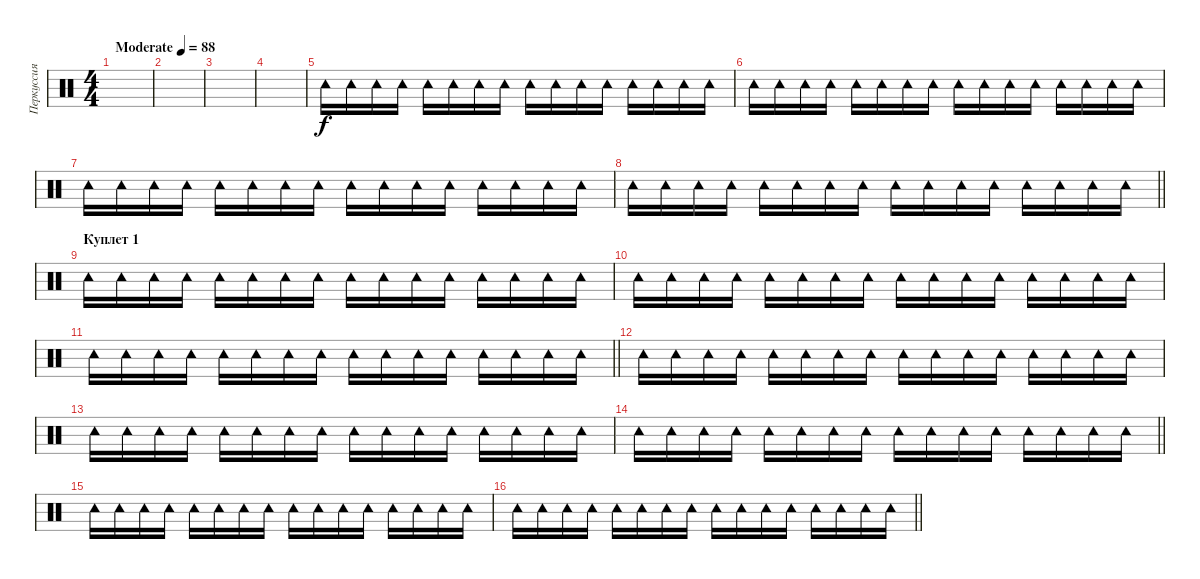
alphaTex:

\track ("Перкуссия 1" "Перкуссия ") {instrument percussion}
\staff {score}
\articulation defaults
\ts (4 4)
\tempo (88 "Moderate")
\clef neutral
\ks c
|
|
|
|
"Tambourine (hit)".16{volume 2} "Tambourine (hit)".16 "Tambourine (hit)".16 "Tambourine (hit)".16 "Tambourine (hit)".16 "Tambourine (hit)".16 "Tambourine (hit)".16 "Tambourine (hit)".16 "Tambourine (hit)".16 "Tambourine (hit)".16 "Tambourine (hit)".16 "Tambourine (hit)".16 "Tambourine (hit)".16 "Tambourine (hit)".16 "Tambourine (hit)".16 "Tambourine (hit)".16 |
"Tambourine (hit)".16 "Tambourine (hit)".16 "Tambourine (hit)".16 "Tambourine (hit)".16 "Tambourine (hit)".16 "Tambourine (hit)".16 "Tambourine (hit)".16 "Tambourine (hit)".16 "Tambourine (hit)".16 "Tambourine (hit)".16 "Tambourine (hit)".16 "Tambourine (hit)".16 "Tambourine (hit)".16 "Tambourine (hit)".16 "Tambourine (hit)".16 "Tambourine (hit)".16 |
"Tambourine (hit)".16 "Tambourine (hit)".16 "Tambourine (hit)".16 "Tambourine (hit)".16 "Tambourine (hit)".16 "Tambourine (hit)".16 "Tambourine (hit)".16 "Tambourine (hit)".16 "Tambourine (hit)".16 "Tambourine (hit)".16 "Tambourine (hit)".16 "Tambourine (hit)".16 "Tambourine (hit)".16 "Tambourine (hit)".16 "Tambourine (hit)".16 "Tambourine (hit)".16 |
\barLineRight lightlight "Tambourine (hit)".16 "Tambourine (hit)".16 "Tambourine (hit)".16 "Tambourine (hit)".16 "Tambourine (hit)".16 "Tambourine (hit)".16 "Tambourine (hit)".16 "Tambourine (hit)".16 "Tambourine (hit)".16 "Tambourine (hit)".16 "Tambourine (hit)".16 "Tambourine (hit)".16 "Tambourine (hit)".16 "Tambourine (hit)".16 "Tambourine (hit)".16 "Tambourine (hit)".16
|
\section ("" "Куплет 1")
"Tambourine (hit)".16 "Tambourine (hit)".16 "Tambourine (hit)".16 "Tambourine (hit)".16 "Tambourine (hit)".16 "Tambourine (hit)".16 "Tambourine (hit)".16 "Tambourine (hit)".16 "Tambourine (hit)".16 "Tambourine (hit)".16 "Tambourine (hit)".16 "Tambourine (hit)".16 "Tambourine (hit)".16 "Tambourine (hit)".16 "Tambourine (hit)".16 "Tambourine (hit)".16 |
"Tambourine (hit)".16 "Tambourine (hit)".16 "Tambourine (hit)".16 "Tambourine (hit)".16 "Tambourine (hit)".16 "Tambourine (hit)".16 "Tambourine (hit)".16 "Tambourine (hit)".16 "Tambourine (hit)".16 "Tambourine (hit)".16 "Tambourine (hit)".16 "Tambourine (hit)".16 "Tambourine (hit)".16 "Tambourine (hit)".16 "Tambourine (hit)".16 "Tambourine (hit)".16 |
\barLineRight lightlight "Tambourine (hit)".16 "Tambourine (hit)".16 "Tambourine (hit)".16 "Tambourine (hit)".16 "Tambourine (hit)".16 "Tambourine (hit)".16 "Tambourine (hit)".16 "Tambourine (hit)".16 "Tambourine (hit)".16 "Tambourine (hit)".16 "Tambourine (hit)".16 "Tambourine (hit)".16 "Tambourine (hit)".16 "Tambourine (hit)".16 "Tambourine (hit)".16 "Tambourine (hit)".16
|
"Tambourine (hit)".16 "Tambourine (hit)".16 "Tambourine (hit)".16 "Tambourine (hit)".16 "Tambourine (hit)".16 "Tambourine (hit)".16 "Tambourine (hit)".16 "Tambourine (hit)".16 "Tambourine (hit)".16 "Tambourine (hit)".16 "Tambourine (hit)".16 "Tambourine (hit)".16 "Tambourine (hit)".16 "Tambourine (hit)".16 "Tambourine (hit)".16 "Tambourine (hit)".16 |
"Tambourine (hit)".16 "Tambourine (hit)".16 "Tambourine (hit)".16 "Tambourine (hit)".16 "Tambourine (hit)".16 "Tambourine (hit)".16 "Tambourine (hit)".16 "Tambourine (hit)".16 "Tambourine (hit)".16 "Tambourine (hit)".16 "Tambourine (hit)".16 "Tambourine (hit)".16 "Tambourine (hit)".16 "Tambourine (hit)".16 "Tambourine (hit)".16 "Tambourine (hit)".16 |
\barLineRight lightlight "Tambourine (hit)".16 "Tambourine (hit)".16 "Tambourine (hit)".16 "Tambourine (hit)".16 "Tambourine (hit)".16 "Tambourine (hit)".16 "Tambourine (hit)".16 "Tambourine (hit)".16 "Tambourine (hit)".16 "Tambourine (hit)".16 "Tambourine (hit)".16 "Tambourine (hit)".16 "Tambourine (hit)".16 "Tambourine (hit)".16 "Tambourine (hit)".16 "Tambourine (hit)".16
|
"Tambourine (hit)".16 "Tambourine (hit)".16 "Tambourine (hit)".16 "Tambourine (hit)".16 "Tambourine (hit)".16 "Tambourine (hit)".16 "Tambourine (hit)".16 "Tambourine (hit)".16 "Tambourine (hit)".16 "Tambourine (hit)".16 "Tambourine (hit)".16 "Tambourine (hit)".16 "Tambourine (hit)".16 "Tambourine (hit)".16 "Tambourine (hit)".16 "Tambourine (hit)".16 |
\barLineRight lightlight "Tambourine (hit)".16 "Tambourine (hit)".16 "Tambourine (hit)".16 "Tambourine (hit)".16 "Tambourine (hit)".16 "Tambourine (hit)".16 "Tambourine (hit)".16 "Tambourine (hit)".16 "Tambourine (hit)".16 "Tambourine (hit)".16 "Tambourine (hit)".16 "Tambourine (hit)".16 "Tambourine (hit)".16 "Tambourine (hit)".16 "Tambourine (hit)".16 "Tambourine (hit)".16
